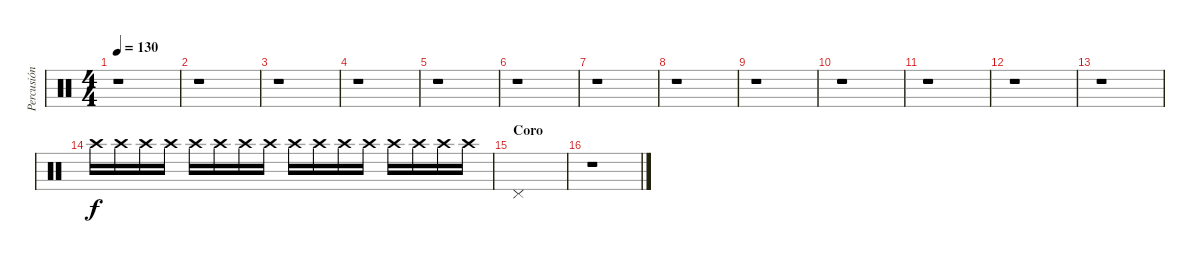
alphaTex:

\track ("Percusión" "Percusión") {instrument percussion}
\staff {score}
\articulation defaults
\ts (4 4)
\tempo 130
\clef neutral
\ks c
r.1{dy f} |
r.1 |
r.1 |
r.1 |
r.1 |
r.1 |
r.1 |
r.1 |
r.1 |
r.1 |
r.1 |
r.1 |
r.1 |
"Crash high (hit)".16{volume 0} "Crash high (hit)".16{volume 13} "Crash high (hit)".16 "Crash high (hit)".16 "Crash high (hit)".16 "Crash high (hit)".16 "Crash high (hit)".16 "Crash high (hit)".16 "Crash high (hit)".16 "Crash high (hit)".16 "Crash high (hit)".16 "Crash high (hit)".16 "Crash high (hit)".16 "Crash high (hit)".16 "Crash high (hit)".16 "Crash high (hit)".16 |
\section ("" "Coro")
"Pedal Hi-Hat (hit)".1 |
r.1
